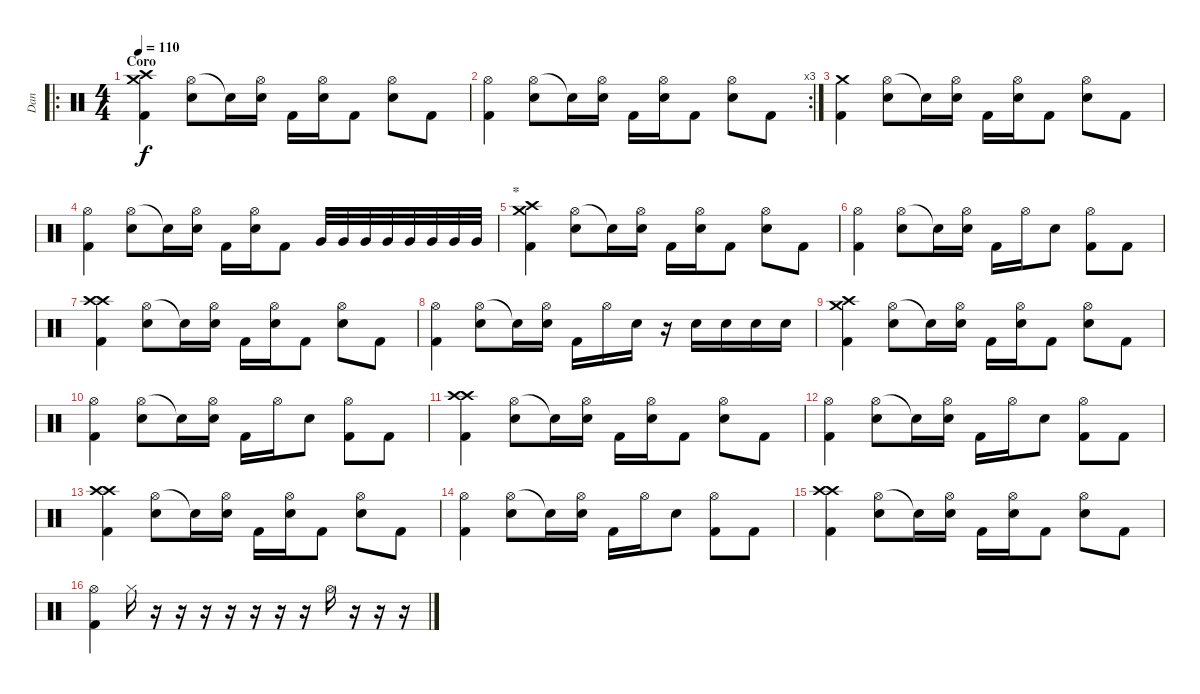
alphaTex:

\track ("Dan" "Dan") {instrument percussion}
\staff {score}
\articulation defaults
\ro
\ts (4 4)
\section ("" "Coro")
\tempo 110
\clef neutral
\ks c
("Crash medium (hit)" "Crash high (hit)" "Kick (hit) 2").4{dy f} ("Hi-Hat (open)" "Snare (hit) 2").8 "Snare (hit) 2"{t}.16 ("Hi-Hat (open)" "Snare (hit) 2").16 "Kick (hit) 2".16 ("Hi-Hat (open)" "Snare (hit) 2").16 "Kick (hit) 2".8 ("Hi-Hat (open)" "Snare (hit) 2").8 "Kick (hit) 2".8 |
\rc 3
("Hi-Hat (open)" "Kick (hit) 2").4 ("Hi-Hat (open)" "Snare (hit) 2").8 "Snare (hit) 2"{t}.16 ("Hi-Hat (open)" "Snare (hit) 2").16 "Kick (hit) 2".16 ("Hi-Hat (open)" "Snare (hit) 2").16 "Kick (hit) 2".8 ("Hi-Hat (open)" "Snare (hit) 2").8 "Kick (hit) 2".8 |
("Crash medium (hit)" "Kick (hit) 2").4 ("Hi-Hat (open)" "Snare (hit) 2").8 "Snare (hit) 2"{t}.16 ("Hi-Hat (open)" "Snare (hit) 2").16 "Kick (hit) 2".16 ("Hi-Hat (open)" "Snare (hit) 2").16 "Kick (hit) 2".8 ("Hi-Hat (open)" "Snare (hit) 2").8 "Kick (hit) 2".8 |
("Hi-Hat (open)" "Kick (hit) 2").4 ("Hi-Hat (open)" "Snare (hit) 2").8 "Snare (hit) 2"{t}.16 ("Hi-Hat (open)" "Snare (hit) 2").16 "Kick (hit) 2".16 ("Hi-Hat (open)" "Snare (hit) 2").16 "Kick (hit) 2".8 "Very Low Tom (hit)".32 "Very Low Tom (hit)".32 "Very Low Tom (hit)".32 "Very Low Tom (hit)".32 "Very Low Tom (hit)".32 "Very Low Tom (hit)".32 "Very Low Tom (hit)".32 "Very Low Tom (hit)".32 |
\section ("" "*")
("Crash medium (hit)" "Crash high (hit)" "Kick (hit) 2").4 ("Hi-Hat (open)" "Snare (hit) 2").8 "Snare (hit) 2"{t}.16 ("Hi-Hat (open)" "Snare (hit) 2").16 "Kick (hit) 2".16 ("Hi-Hat (open)" "Snare (hit) 2").16 "Kick (hit) 2".8 ("Hi-Hat (open)" "Snare (hit) 2").8 "Kick (hit) 2".8 |
("Hi-Hat (open)" "Kick (hit) 2").4 ("Hi-Hat (open)" "Snare (hit) 2").8 "Snare (hit) 2"{t}.16 ("Hi-Hat (open)" "Snare (hit) 2").16 "Kick (hit) 2".16 "Hi-Hat (open)".16 "Snare (hit) 2".8 ("Hi-Hat (open)" "Kick (hit) 2").8 "Kick (hit) 2".8 |
("Crash high (hit)" "Crash high (hit)" "Kick (hit) 2").4 ("Hi-Hat (open)" "Snare (hit) 2").8 "Snare (hit) 2"{t}.16 ("Hi-Hat (open)" "Snare (hit) 2").16 "Kick (hit) 2".16 ("Hi-Hat (open)" "Snare (hit) 2").16 "Kick (hit) 2".8 ("Hi-Hat (open)" "Snare (hit) 2").8 "Kick (hit) 2".8 |
("Hi-Hat (open)" "Kick (hit) 2").4 ("Hi-Hat (open)" "Snare (hit) 2").8 "Snare (hit) 2"{t}.16 ("Hi-Hat (open)" "Snare (hit) 2").16 "Kick (hit) 2".16 "Hi-Hat (open)".16 "Snare (hit) 2".16 r.16 "Snare (hit) 2".16 "Snare (hit) 2".16 "Snare (hit) 2".16 "Snare (hit) 2".16 |
("Crash medium (hit)" "Crash high (hit)" "Kick (hit) 2").4 ("Hi-Hat (open)" "Snare (hit) 2").8 "Snare (hit) 2"{t}.16 ("Hi-Hat (open)" "Snare (hit) 2").16 "Kick (hit) 2".16 ("Hi-Hat (open)" "Snare (hit) 2").16 "Kick (hit) 2".8 ("Hi-Hat (open)" "Snare (hit) 2").8 "Kick (hit) 2".8 |
("Hi-Hat (open)" "Kick (hit) 2").4 ("Hi-Hat (open)" "Snare (hit) 2").8 "Snare (hit) 2"{t}.16 ("Hi-Hat (open)" "Snare (hit) 2").16 "Kick (hit) 2".16 "Hi-Hat (open)".16 "Snare (hit) 2".8 ("Hi-Hat (open)" "Kick (hit) 2").8 "Kick (hit) 2".8 |
("Crash high (hit)" "Crash high (hit)" "Kick (hit) 2").4 ("Hi-Hat (open)" "Snare (hit) 2").8 "Snare (hit) 2"{t}.16 ("Hi-Hat (open)" "Snare (hit) 2").16 "Kick (hit) 2".16 ("Hi-Hat (open)" "Snare (hit) 2").16 "Kick (hit) 2".8 ("Hi-Hat (open)" "Snare (hit) 2").8 "Kick (hit) 2".8 |
("Hi-Hat (open)" "Kick (hit) 2").4 ("Hi-Hat (open)" "Snare (hit) 2").8 "Snare (hit) 2"{t}.16 ("Hi-Hat (open)" "Snare (hit) 2").16 "Kick (hit) 2".16 "Hi-Hat (open)".16 "Snare (hit) 2".8 ("Hi-Hat (open)" "Kick (hit) 2").8 "Kick (hit) 2".8 |
("Crash high (hit)" "Crash high (hit)" "Kick (hit) 2").4 ("Hi-Hat (open)" "Snare (hit) 2").8 "Snare (hit) 2"{t}.16 ("Hi-Hat (open)" "Snare (hit) 2").16 "Kick (hit) 2".16 ("Hi-Hat (open)" "Snare (hit) 2").16 "Kick (hit) 2".8 ("Hi-Hat (open)" "Snare (hit) 2").8 "Kick (hit) 2".8 |
("Hi-Hat (open)" "Kick (hit) 2").4 ("Hi-Hat (open)" "Snare (hit) 2").8 "Snare (hit) 2"{t}.16 ("Hi-Hat (open)" "Snare (hit) 2").16 "Kick (hit) 2".16 "Hi-Hat (open)".16 "Snare (hit) 2".8 ("Hi-Hat (open)" "Kick (hit) 2").8 "Kick (hit) 2".8 |
("Crash high (hit)" "Crash high (hit)" "Kick (hit) 2").4 ("Hi-Hat (open)" "Snare (hit) 2").8 "Snare (hit) 2"{t}.16 ("Hi-Hat (open)" "Snare (hit) 2").16 "Kick (hit) 2".16 ("Hi-Hat (open)" "Snare (hit) 2").16 "Kick (hit) 2".8 ("Hi-Hat (open)" "Snare (hit) 2").8 "Kick (hit) 2".8 |
("Hi-Hat (open)" "Kick (hit) 2").4 "Hi-Hat (closed)".16 r.16 r.16 r.16 r.16 r.16 r.16 r.16 "Hi-Hat (open)".16 r.16 r.16 r.16
